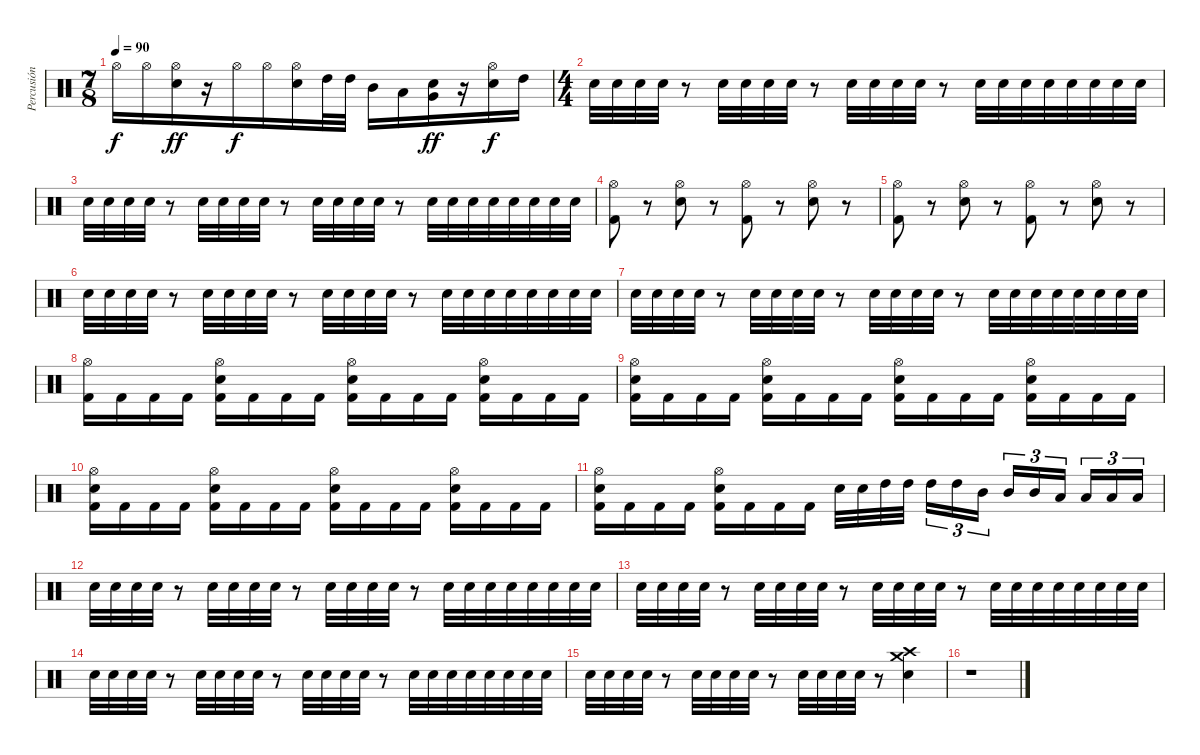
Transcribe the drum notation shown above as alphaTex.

\track ("Percusión" "Percusión") {instrument percussion}
\staff {score}
\articulation defaults
\ts (7 8)
\tempo 90
\clef neutral
\ks c "Hi-Hat (open)".16{dy f} "Hi-Hat (open)".16
("Hi-Hat (open)" "Electric Snare (hit)").16{dy ff} r.16 "Hi-Hat (open)".16{dy f} "Hi-Hat (open)".16 ("Hi-Hat (open)" "Electric Snare (hit)").16 "High Tom (hit)".32 "High Tom (hit)".32 "Mid Tom (hit)".16 "Low Tom (hit)".16 ("Electric Snare (hit)" "Very Low Tom (hit)").16{dy ff} r.16 ("Hi-Hat (open)" "Electric Snare (hit)").16{dy f} "High Tom (hit)".16 |
\ts (4 4)
"Electric Snare (hit)".32 "Electric Snare (hit)".32 "Electric Snare (hit)".32 "Electric Snare (hit)".32 r.8 "Electric Snare (hit)".32 "Electric Snare (hit)".32 "Electric Snare (hit)".32 "Electric Snare (hit)".32 r.8 "Electric Snare (hit)".32 "Electric Snare (hit)".32 "Electric Snare (hit)".32 "Electric Snare (hit)".32 r.8 "Electric Snare (hit)".32 "Electric Snare (hit)".32 "Electric Snare (hit)".32 "Electric Snare (hit)".32 "Electric Snare (hit)".32 "Electric Snare (hit)".32 "Electric Snare (hit)".32 "Electric Snare (hit)".32 |
"Electric Snare (hit)".32 "Electric Snare (hit)".32 "Electric Snare (hit)".32 "Electric Snare (hit)".32 r.8 "Electric Snare (hit)".32 "Electric Snare (hit)".32 "Electric Snare (hit)".32 "Electric Snare (hit)".32 r.8 "Electric Snare (hit)".32 "Electric Snare (hit)".32 "Electric Snare (hit)".32 "Electric Snare (hit)".32 r.8 "Electric Snare (hit)".32 "Electric Snare (hit)".32 "Electric Snare (hit)".32 "Electric Snare (hit)".32 "Electric Snare (hit)".32 "Electric Snare (hit)".32 "Electric Snare (hit)".32 "Electric Snare (hit)".32 |
("Hi-Hat (open)" "Kick (hit) 2").8 r.8 ("Hi-Hat (open)" "Electric Snare (hit)").8 r.8 ("Hi-Hat (open)" "Kick (hit) 2").8 r.8 ("Hi-Hat (open)" "Electric Snare (hit)").8 r.8 |
("Hi-Hat (open)" "Kick (hit) 2").8 r.8 ("Hi-Hat (open)" "Electric Snare (hit)").8 r.8 ("Hi-Hat (open)" "Kick (hit) 2").8 r.8 ("Hi-Hat (open)" "Electric Snare (hit)").8 r.8 |
"Electric Snare (hit)".32 "Electric Snare (hit)".32 "Electric Snare (hit)".32 "Electric Snare (hit)".32 r.8 "Electric Snare (hit)".32 "Electric Snare (hit)".32 "Electric Snare (hit)".32 "Electric Snare (hit)".32 r.8 "Electric Snare (hit)".32 "Electric Snare (hit)".32 "Electric Snare (hit)".32 "Electric Snare (hit)".32 r.8 "Electric Snare (hit)".32 "Electric Snare (hit)".32 "Electric Snare (hit)".32 "Electric Snare (hit)".32 "Electric Snare (hit)".32 "Electric Snare (hit)".32 "Electric Snare (hit)".32 "Electric Snare (hit)".32 |
"Electric Snare (hit)".32 "Electric Snare (hit)".32 "Electric Snare (hit)".32 "Electric Snare (hit)".32 r.8 "Electric Snare (hit)".32 "Electric Snare (hit)".32 "Electric Snare (hit)".32 "Electric Snare (hit)".32 r.8 "Electric Snare (hit)".32 "Electric Snare (hit)".32 "Electric Snare (hit)".32 "Electric Snare (hit)".32 r.8 "Electric Snare (hit)".32 "Electric Snare (hit)".32 "Electric Snare (hit)".32 "Electric Snare (hit)".32 "Electric Snare (hit)".32 "Electric Snare (hit)".32 "Electric Snare (hit)".32 "Electric Snare (hit)".32 |
("Hi-Hat (open)" "Kick (hit) 2").16 "Kick (hit) 2".16 "Kick (hit) 2".16 "Kick (hit) 2".16 ("Hi-Hat (open)" "Electric Snare (hit)" "Kick (hit) 2").16 "Kick (hit) 2".16 "Kick (hit) 2".16 "Kick (hit) 2".16 ("Hi-Hat (open)" "Electric Snare (hit)" "Kick (hit) 2").16 "Kick (hit) 2".16 "Kick (hit) 2".16 "Kick (hit) 2".16 ("Hi-Hat (open)" "Electric Snare (hit)" "Kick (hit) 2").16 "Kick (hit) 2".16 "Kick (hit) 2".16 "Kick (hit) 2".16 |
("Hi-Hat (open)" "Electric Snare (hit)" "Kick (hit) 2").16 "Kick (hit) 2".16 "Kick (hit) 2".16 "Kick (hit) 2".16 ("Hi-Hat (open)" "Electric Snare (hit)" "Kick (hit) 2").16 "Kick (hit) 2".16 "Kick (hit) 2".16 "Kick (hit) 2".16 ("Hi-Hat (open)" "Electric Snare (hit)" "Kick (hit) 2").16 "Kick (hit) 2".16 "Kick (hit) 2".16 "Kick (hit) 2".16 ("Hi-Hat (open)" "Electric Snare (hit)" "Kick (hit) 2").16 "Kick (hit) 2".16 "Kick (hit) 2".16 "Kick (hit) 2".16 |
("Hi-Hat (open)" "Electric Snare (hit)" "Kick (hit) 2").16 "Kick (hit) 2".16 "Kick (hit) 2".16 "Kick (hit) 2".16 ("Hi-Hat (open)" "Electric Snare (hit)" "Kick (hit) 2").16 "Kick (hit) 2".16 "Kick (hit) 2".16 "Kick (hit) 2".16 ("Hi-Hat (open)" "Electric Snare (hit)" "Kick (hit) 2").16 "Kick (hit) 2".16 "Kick (hit) 2".16 "Kick (hit) 2".16 ("Hi-Hat (open)" "Electric Snare (hit)" "Kick (hit) 2").16 "Kick (hit) 2".16 "Kick (hit) 2".16 "Kick (hit) 2".16 |
("Hi-Hat (open)" "Electric Snare (hit)" "Kick (hit) 2").16 "Kick (hit) 2".16 "Kick (hit) 2".16 "Kick (hit) 2".16 ("Hi-Hat (open)" "Electric Snare (hit)" "Kick (hit) 2").16 "Kick (hit) 2".16 "Kick (hit) 2".16 "Kick (hit) 2".16 "Electric Snare (hit)".32 "Electric Snare (hit)".32 "High Tom (hit)".32 "High Tom (hit)".32{beam splitsecondary} "High Tom (hit)".16{tu (3 2)} "High Tom (hit)".16{tu (3 2)} "Mid Tom (hit)".16{tu (3 2)} "Mid Tom (hit)".16{tu (3 2)} "Mid Tom (hit)".16{tu (3 2)} "Low Tom (hit)".16{tu (3 2) beam splitsecondary} "Low Tom (hit)".16{tu (3 2)} "Low Tom (hit)".16{tu (3 2)} "Low Tom (hit)".16{tu (3 2)} |
"Electric Snare (hit)".32 "Electric Snare (hit)".32 "Electric Snare (hit)".32 "Electric Snare (hit)".32 r.8 "Electric Snare (hit)".32 "Electric Snare (hit)".32 "Electric Snare (hit)".32 "Electric Snare (hit)".32 r.8 "Electric Snare (hit)".32 "Electric Snare (hit)".32 "Electric Snare (hit)".32 "Electric Snare (hit)".32 r.8 "Electric Snare (hit)".32 "Electric Snare (hit)".32 "Electric Snare (hit)".32 "Electric Snare (hit)".32 "Electric Snare (hit)".32 "Electric Snare (hit)".32 "Electric Snare (hit)".32 "Electric Snare (hit)".32 |
"Electric Snare (hit)".32 "Electric Snare (hit)".32 "Electric Snare (hit)".32 "Electric Snare (hit)".32 r.8 "Electric Snare (hit)".32 "Electric Snare (hit)".32 "Electric Snare (hit)".32 "Electric Snare (hit)".32 r.8 "Electric Snare (hit)".32 "Electric Snare (hit)".32 "Electric Snare (hit)".32 "Electric Snare (hit)".32 r.8 "Electric Snare (hit)".32 "Electric Snare (hit)".32 "Electric Snare (hit)".32 "Electric Snare (hit)".32 "Electric Snare (hit)".32 "Electric Snare (hit)".32 "Electric Snare (hit)".32 "Electric Snare (hit)".32 |
"Electric Snare (hit)".32 "Electric Snare (hit)".32 "Electric Snare (hit)".32 "Electric Snare (hit)".32 r.8 "Electric Snare (hit)".32 "Electric Snare (hit)".32 "Electric Snare (hit)".32 "Electric Snare (hit)".32 r.8 "Electric Snare (hit)".32 "Electric Snare (hit)".32 "Electric Snare (hit)".32 "Electric Snare (hit)".32 r.8 "Electric Snare (hit)".32 "Electric Snare (hit)".32 "Electric Snare (hit)".32 "Electric Snare (hit)".32 "Electric Snare (hit)".32 "Electric Snare (hit)".32 "Electric Snare (hit)".32 "Electric Snare (hit)".32 |
"Electric Snare (hit)".32 "Electric Snare (hit)".32 "Electric Snare (hit)".32 "Electric Snare (hit)".32 r.8 "Electric Snare (hit)".32 "Electric Snare (hit)".32 "Electric Snare (hit)".32 "Electric Snare (hit)".32 r.8 "Electric Snare (hit)".32 "Electric Snare (hit)".32 "Electric Snare (hit)".32 "Electric Snare (hit)".32 r.8 ("Crash high (hit)" "Crash medium (hit)" "Electric Snare (hit)").4 |
r.1
